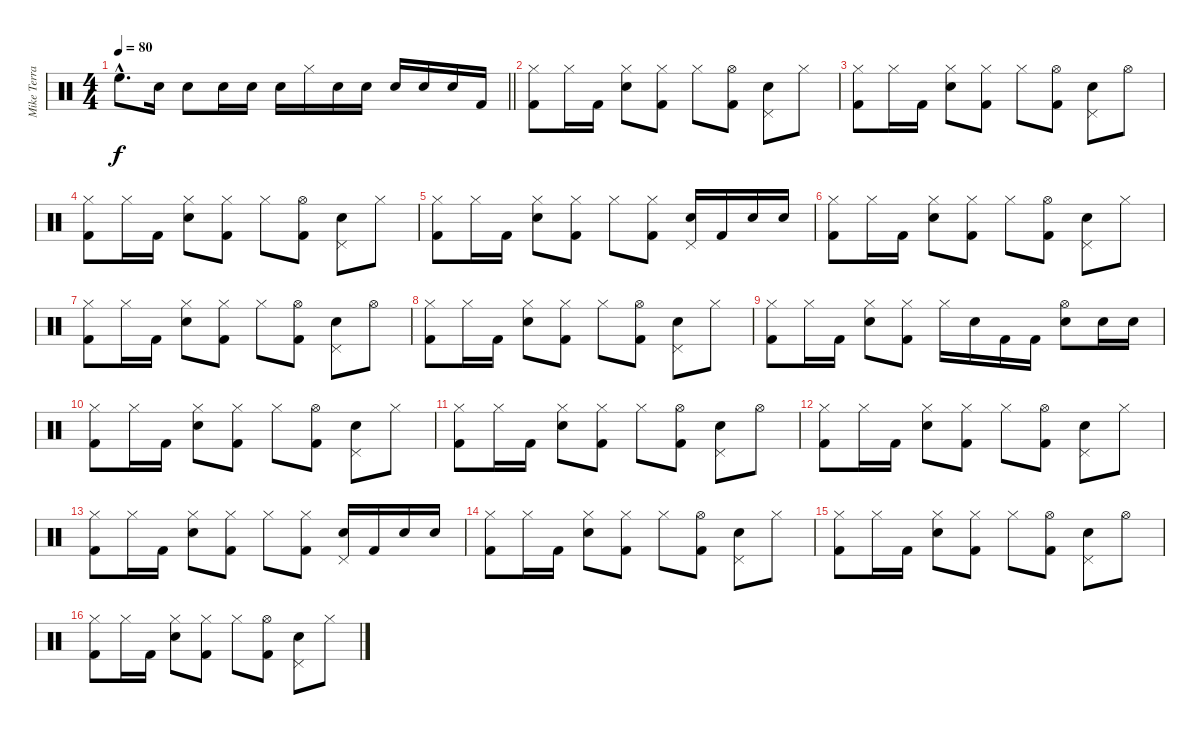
\track ("Mike Terrana" "Mike Terra") {instrument percussion}
\staff {score}
\articulation defaults
\ts (4 4)
\tempo 80
\clef neutral
\barLineRight lightlight
\ks c "High Floor Tom (hit)"{hac}.8{d dy f} "Electric Snare (hit)".16 "Electric Snare (hit)".8 "Electric Snare (hit)".16 "Electric Snare (hit)".16 "Electric Snare (hit)"{x}.16 "Hi-Hat (closed)".16 "Electric Snare (hit)"{x}.16 "Electric Snare (hit)".16 "Electric Snare (hit)".16 "Electric Snare (hit)".16 "Electric Snare (hit)".16 "Kick (hit) 2".16
|
("Hi-Hat (closed)" "Kick (hit) 2").8 "Hi-Hat (closed)".16 "Kick (hit) 2".16 ("Hi-Hat (closed)" "Electric Snare (hit)").8 ("Hi-Hat (closed)" "Kick (hit) 2").8 "Hi-Hat (closed)".8 ("Hi-Hat (open)" "Kick (hit) 2").8 ("Pedal Hi-Hat (hit)" "Electric Snare (hit)").8 "Hi-Hat (closed)".8 |
("Hi-Hat (closed)" "Kick (hit) 2").8 "Hi-Hat (closed)".16 "Kick (hit) 2".16 ("Hi-Hat (closed)" "Electric Snare (hit)").8 ("Hi-Hat (closed)" "Kick (hit) 2").8 "Hi-Hat (closed)".8 ("Hi-Hat (open)" "Kick (hit) 2").8 ("Pedal Hi-Hat (hit)" "Electric Snare (hit)").8 "Hi-Hat (open)".8 |
("Hi-Hat (closed)" "Kick (hit) 2").8 "Hi-Hat (closed)".16 "Kick (hit) 2".16 ("Hi-Hat (closed)" "Electric Snare (hit)").8 ("Hi-Hat (closed)" "Kick (hit) 2").8 "Hi-Hat (closed)".8 ("Hi-Hat (open)" "Kick (hit) 2").8 ("Pedal Hi-Hat (hit)" "Electric Snare (hit)").8 "Hi-Hat (closed)".8 |
("Hi-Hat (closed)" "Kick (hit) 2").8 "Hi-Hat (closed)".16 "Kick (hit) 2".16 ("Hi-Hat (closed)" "Electric Snare (hit)").8 ("Hi-Hat (closed)" "Kick (hit) 2").8 "Hi-Hat (closed)".8 ("Hi-Hat (closed)" "Kick (hit) 2").8 ("Pedal Hi-Hat (hit)" "Electric Snare (hit)").16 "Kick (hit) 2".16 "Electric Snare (hit)".16 "Electric Snare (hit)".16 |
("Hi-Hat (closed)" "Kick (hit) 2").8 "Hi-Hat (closed)".16 "Kick (hit) 2".16 ("Hi-Hat (closed)" "Electric Snare (hit)").8 ("Hi-Hat (closed)" "Kick (hit) 2").8 "Hi-Hat (closed)".8 ("Hi-Hat (open)" "Kick (hit) 2").8 ("Pedal Hi-Hat (hit)" "Electric Snare (hit)").8 "Hi-Hat (closed)".8 |
("Hi-Hat (closed)" "Kick (hit) 2").8 "Hi-Hat (closed)".16 "Kick (hit) 2".16 ("Hi-Hat (closed)" "Electric Snare (hit)").8 ("Hi-Hat (closed)" "Kick (hit) 2").8 "Hi-Hat (closed)".8 ("Hi-Hat (open)" "Kick (hit) 2").8 ("Pedal Hi-Hat (hit)" "Electric Snare (hit)").8 "Hi-Hat (open)".8 |
("Hi-Hat (closed)" "Kick (hit) 2").8 "Hi-Hat (closed)".16 "Kick (hit) 2".16 ("Hi-Hat (closed)" "Electric Snare (hit)").8 ("Hi-Hat (closed)" "Kick (hit) 2").8 "Hi-Hat (closed)".8 ("Hi-Hat (open)" "Kick (hit) 2").8 ("Pedal Hi-Hat (hit)" "Electric Snare (hit)").8 "Hi-Hat (closed)".8 |
("Hi-Hat (closed)" "Kick (hit) 2").8 "Hi-Hat (closed)".16 "Kick (hit) 2".16 ("Hi-Hat (closed)" "Electric Snare (hit)").8 ("Hi-Hat (closed)" "Kick (hit) 2").8 "Hi-Hat (closed)".16 "Electric Snare (hit)".16 "Kick (hit) 2".16 "Kick (hit) 2".16 ("Hi-Hat (open)" "Electric Snare (hit)").8 "Electric Snare (hit)".16 "Electric Snare (hit)".16 |
("Hi-Hat (closed)" "Kick (hit) 2").8 "Hi-Hat (closed)".16 "Kick (hit) 2".16 ("Hi-Hat (closed)" "Electric Snare (hit)").8 ("Hi-Hat (closed)" "Kick (hit) 2").8 "Hi-Hat (closed)".8 ("Hi-Hat (open)" "Kick (hit) 2").8 ("Pedal Hi-Hat (hit)" "Electric Snare (hit)").8 "Hi-Hat (closed)".8 |
("Hi-Hat (closed)" "Kick (hit) 2").8 "Hi-Hat (closed)".16 "Kick (hit) 2".16 ("Hi-Hat (closed)" "Electric Snare (hit)").8 ("Hi-Hat (closed)" "Kick (hit) 2").8 "Hi-Hat (closed)".8 ("Hi-Hat (open)" "Kick (hit) 2").8 ("Pedal Hi-Hat (hit)" "Electric Snare (hit)").8 "Hi-Hat (open)".8 |
("Hi-Hat (closed)" "Kick (hit) 2").8 "Hi-Hat (closed)".16 "Kick (hit) 2".16 ("Hi-Hat (closed)" "Electric Snare (hit)").8 ("Hi-Hat (closed)" "Kick (hit) 2").8 "Hi-Hat (closed)".8 ("Hi-Hat (open)" "Kick (hit) 2").8 ("Pedal Hi-Hat (hit)" "Electric Snare (hit)").8 "Hi-Hat (closed)".8 |
("Hi-Hat (closed)" "Kick (hit) 2").8 "Hi-Hat (closed)".16 "Kick (hit) 2".16 ("Hi-Hat (closed)" "Electric Snare (hit)").8 ("Hi-Hat (closed)" "Kick (hit) 2").8 "Hi-Hat (closed)".8 ("Hi-Hat (closed)" "Kick (hit) 2").8 ("Pedal Hi-Hat (hit)" "Electric Snare (hit)").16 "Kick (hit) 2".16 "Electric Snare (hit)".16 "Electric Snare (hit)".16 |
("Hi-Hat (closed)" "Kick (hit) 2").8 "Hi-Hat (closed)".16 "Kick (hit) 2".16 ("Hi-Hat (closed)" "Electric Snare (hit)").8 ("Hi-Hat (closed)" "Kick (hit) 2").8 "Hi-Hat (closed)".8 ("Hi-Hat (open)" "Kick (hit) 2").8 ("Pedal Hi-Hat (hit)" "Electric Snare (hit)").8 "Hi-Hat (closed)".8 |
("Hi-Hat (closed)" "Kick (hit) 2").8 "Hi-Hat (closed)".16 "Kick (hit) 2".16 ("Hi-Hat (closed)" "Electric Snare (hit)").8 ("Hi-Hat (closed)" "Kick (hit) 2").8 "Hi-Hat (closed)".8 ("Hi-Hat (open)" "Kick (hit) 2").8 ("Pedal Hi-Hat (hit)" "Electric Snare (hit)").8 "Hi-Hat (open)".8 |
("Hi-Hat (closed)" "Kick (hit) 2").8 "Hi-Hat (closed)".16 "Kick (hit) 2".16 ("Hi-Hat (closed)" "Electric Snare (hit)").8 ("Hi-Hat (closed)" "Kick (hit) 2").8 "Hi-Hat (closed)".8 ("Hi-Hat (open)" "Kick (hit) 2").8 ("Pedal Hi-Hat (hit)" "Electric Snare (hit)").8 "Hi-Hat (closed)".8
